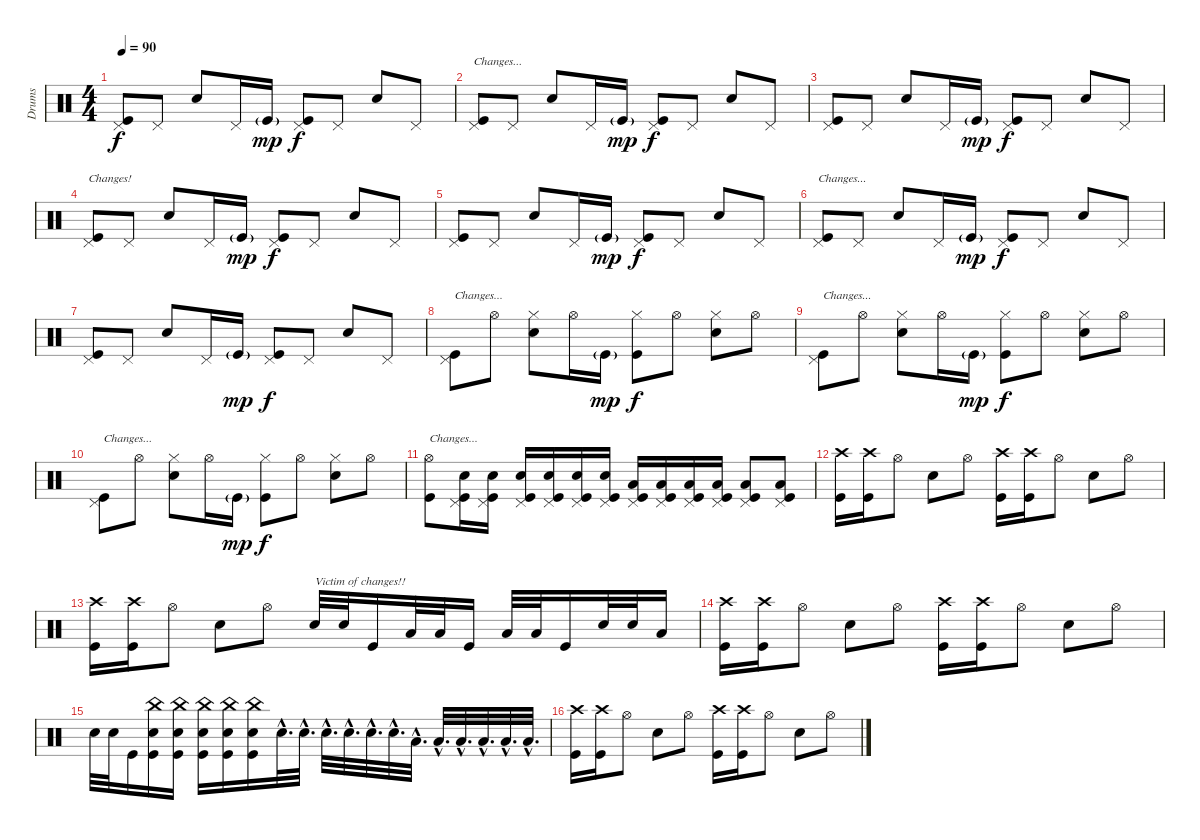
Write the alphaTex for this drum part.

\track ("Drums" "Drums") {instrument percussion}
\staff {score}
\articulation defaults
\ts (4 4)
\tempo 90
\clef neutral
\ks c
("Kick (hit)" "Pedal Hi-Hat (hit)").8{dy f} "Pedal Hi-Hat (hit)".8 "Snare (hit) 2".8 "Pedal Hi-Hat (hit)".16 "Kick (hit)"{g}.16{dy mp} ("Kick (hit)" "Pedal Hi-Hat (hit)").8{dy f} "Pedal Hi-Hat (hit)".8 "Snare (hit) 2".8 "Pedal Hi-Hat (hit)".8 |
("Kick (hit)" "Pedal Hi-Hat (hit)").8{txt "Changes..."} "Pedal Hi-Hat (hit)".8 "Snare (hit) 2".8 "Pedal Hi-Hat (hit)".16 "Kick (hit)"{g}.16{dy mp} ("Kick (hit)" "Pedal Hi-Hat (hit)").8{dy f} "Pedal Hi-Hat (hit)".8 "Snare (hit) 2".8 "Pedal Hi-Hat (hit)".8 |
("Kick (hit)" "Pedal Hi-Hat (hit)").8 "Pedal Hi-Hat (hit)".8 "Snare (hit) 2".8 "Pedal Hi-Hat (hit)".16 "Kick (hit)"{g}.16{dy mp} ("Kick (hit)" "Pedal Hi-Hat (hit)").8{dy f} "Pedal Hi-Hat (hit)".8 "Snare (hit) 2".8 "Pedal Hi-Hat (hit)".8 |
("Kick (hit)" "Pedal Hi-Hat (hit)").8{txt "Changes!"} "Pedal Hi-Hat (hit)".8 "Snare (hit) 2".8 "Pedal Hi-Hat (hit)".16 "Kick (hit)"{g}.16{dy mp} ("Kick (hit)" "Pedal Hi-Hat (hit)").8{dy f} "Pedal Hi-Hat (hit)".8 "Snare (hit) 2".8 "Pedal Hi-Hat (hit)".8 |
("Kick (hit)" "Pedal Hi-Hat (hit)").8 "Pedal Hi-Hat (hit)".8 "Snare (hit) 2".8 "Pedal Hi-Hat (hit)".16 "Kick (hit)"{g}.16{dy mp} ("Kick (hit)" "Pedal Hi-Hat (hit)").8{dy f} "Pedal Hi-Hat (hit)".8 "Snare (hit) 2".8 "Pedal Hi-Hat (hit)".8 |
("Kick (hit)" "Pedal Hi-Hat (hit)").8{txt "Changes..."} "Pedal Hi-Hat (hit)".8 "Snare (hit) 2".8 "Pedal Hi-Hat (hit)".16 "Kick (hit)"{g}.16{dy mp} ("Kick (hit)" "Pedal Hi-Hat (hit)").8{dy f} "Pedal Hi-Hat (hit)".8 "Snare (hit) 2".8 "Pedal Hi-Hat (hit)".8 |
("Kick (hit)" "Pedal Hi-Hat (hit)").8 "Pedal Hi-Hat (hit)".8 "Snare (hit) 2".8 "Pedal Hi-Hat (hit)".16 "Kick (hit)"{g}.16{dy mp} ("Kick (hit)" "Pedal Hi-Hat (hit)").8{dy f} "Pedal Hi-Hat (hit)".8 "Snare (hit) 2".8 "Pedal Hi-Hat (hit)".8 |
("Kick (hit)" "Pedal Hi-Hat (hit)").8{txt "Changes..."} "Hi-Hat (open)".8 ("Snare (hit) 2" "Hi-Hat (closed)").8 "Hi-Hat (open)".16 "Kick (hit)"{g}.16{dy mp} ("Kick (hit)" "Hi-Hat (closed)").8{dy f} "Hi-Hat (open)".8 ("Snare (hit) 2" "Hi-Hat (closed)").8 "Hi-Hat (open)".8 |
("Kick (hit)" "Pedal Hi-Hat (hit)").8{txt "Changes..."} "Hi-Hat (open)".8 ("Snare (hit) 2" "Hi-Hat (closed)").8 "Hi-Hat (open)".16 "Kick (hit)"{g}.16{dy mp} ("Kick (hit)" "Hi-Hat (closed)").8{dy f} "Hi-Hat (open)".8 ("Snare (hit) 2" "Hi-Hat (closed)").8 "Hi-Hat (open)".8 |
("Kick (hit)" "Pedal Hi-Hat (hit)").8{txt "Changes..."} "Hi-Hat (open)".8 ("Snare (hit) 2" "Hi-Hat (closed)").8 "Hi-Hat (open)".16 "Kick (hit)"{g}.16{dy mp} ("Kick (hit)" "Hi-Hat (closed)").8{dy f} "Hi-Hat (open)".8 ("Snare (hit) 2" "Hi-Hat (closed)").8 "Hi-Hat (open)".8 |
("Kick (hit)" "Hi-Hat (open)").8{txt "Changes..."} ("Kick (hit)" "Snare (hit) 2" "Pedal Hi-Hat (hit)").16 ("Kick (hit)" "Snare (hit) 2" "Pedal Hi-Hat (hit)").16 ("Kick (hit)" "Snare (hit) 2" "Pedal Hi-Hat (hit)").16 ("Kick (hit)" "Snare (hit) 2" "Pedal Hi-Hat (hit)").16 ("Kick (hit)" "Snare (hit) 2" "Pedal Hi-Hat (hit)").16 ("Kick (hit)" "Snare (hit) 2" "Pedal Hi-Hat (hit)").16 ("Kick (hit)" "Low Floor Tom (hit)" "Pedal Hi-Hat (hit)").16 ("Kick (hit)" "Low Floor Tom (hit)" "Pedal Hi-Hat (hit)").16 ("Kick (hit)" "Low Floor Tom (hit)" "Pedal Hi-Hat (hit)").16 ("Kick (hit)" "Low Floor Tom (hit)" "Pedal Hi-Hat (hit)").16 ("Kick (hit)" "Low Floor Tom (hit)" "Pedal Hi-Hat (hit)").8 ("Kick (hit)" "Low Floor Tom (hit)" "Pedal Hi-Hat (hit)").8 |
("Kick (hit)" "Crash high (hit)").16 ("Kick (hit)" "Crash high (hit)").16 "Hi-Hat (open)".8 "Snare (hit) 2".8 "Hi-Hat (open)".8 ("Kick (hit)" "Crash high (hit)").16 ("Kick (hit)" "Crash high (hit)").16 "Hi-Hat (open)".8 "Snare (hit) 2".8 "Hi-Hat (open)".8 |
("Kick (hit)" "Crash high (hit)").16 ("Kick (hit)" "Crash high (hit)").16 "Hi-Hat (open)".8 "Snare (hit) 2".8 "Hi-Hat (open)".8 "Snare (hit) 2".32{txt "Victim of changes!!"} "Snare (hit) 2".32 "Kick (hit)".16 "Low Tom (hit)".32 "Low Tom (hit)".32 "Kick (hit)".16 "Low Tom (hit)".32 "Low Tom (hit)".32 "Kick (hit)".16 "Snare (hit) 2".32 "Snare (hit) 2".32 "Low Tom (hit)".16 |
("Kick (hit)" "Crash high (hit)").16 ("Kick (hit)" "Crash high (hit)").16 "Hi-Hat (open)".8 "Snare (hit) 2".8 "Hi-Hat (open)".8 ("Kick (hit)" "Crash high (hit)").16 ("Kick (hit)" "Crash high (hit)").16 "Hi-Hat (open)".8 "Snare (hit) 2".8 "Hi-Hat (open)".8 |
"Snare (hit) 2".32 "Snare (hit) 2".32 "Kick (hit)".16 ("Snare (hit) 2" "Kick (hit)" "China (hit)").16 ("Snare (hit) 2" "Kick (hit)" "China (hit)").16 ("Snare (hit) 2" "Kick (hit)" "China (hit)").16 ("Snare (hit) 2" "Kick (hit)" "China (hit)").16 ("Snare (hit) 2" "Kick (hit)" "China (hit)").16 "Snare (hit) 2"{hac}.32{d} "Snare (hit) 2"{hac}.32{d} "Snare (hit) 2"{hac}.32{d} "Snare (hit) 2"{hac}.32{d} "Snare (hit) 2"{hac}.32{d} "Snare (hit) 2"{hac}.32{d} "Low Tom (hit)"{hac}.32{d} "Low Tom (hit)"{hac}.32{d} "Low Tom (hit)"{hac}.32{d} "Low Tom (hit)"{hac}.32{d} "Low Tom (hit)"{hac}.32{d} "Low Tom (hit)"{hac}.32{d} |
("Kick (hit)" "Crash high (hit)").16 ("Kick (hit)" "Crash high (hit)").16 "Hi-Hat (open)".8 "Snare (hit) 2".8 "Hi-Hat (open)".8 ("Kick (hit)" "Crash high (hit)").16 ("Kick (hit)" "Crash high (hit)").16 "Hi-Hat (open)".8 "Snare (hit) 2".8 "Hi-Hat (open)".8
